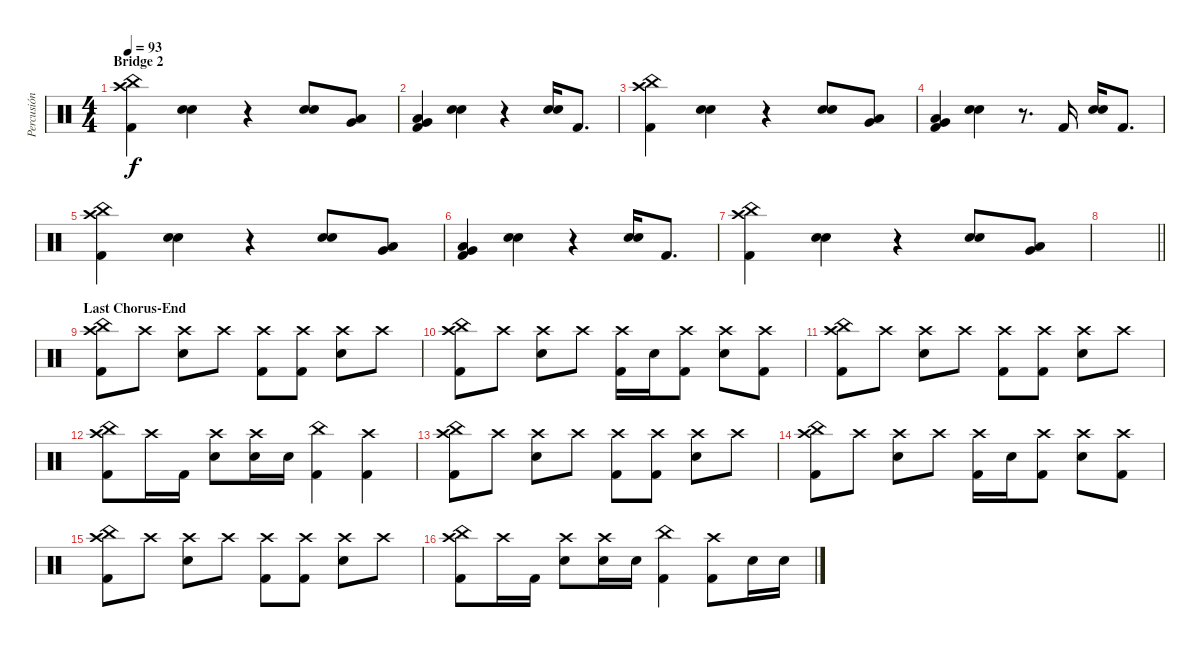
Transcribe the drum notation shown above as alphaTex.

\track ("Percusión" "Percusión") {instrument percussion}
\staff {score}
\articulation defaults
\ts (4 4)
\section ("" "Bridge 2")
\tempo 93
\clef neutral
\ks c
("China (hit)" "Kick (hit) 2" "Crash high (hit)").4{dy f} ("Electric Snare (hit)" "Snare (hit) 2").4 r.4 ("Electric Snare (hit)" "Snare (hit) 2").8 ("Low Tom (hit)" "Very Low Tom (hit)").8 |
("Low Tom (hit)" "Very Low Tom (hit)" "Kick (hit) 2").4 ("Electric Snare (hit)" "Snare (hit) 2").4 r.4 ("Electric Snare (hit)" "Snare (hit) 2").16 "Kick (hit) 2".8{d} |
("China (hit)" "Kick (hit) 2" "Crash high (hit)").4 ("Electric Snare (hit)" "Snare (hit) 2").4 r.4 ("Electric Snare (hit)" "Snare (hit) 2").8 ("Low Tom (hit)" "Very Low Tom (hit)").8 |
("Low Tom (hit)" "Very Low Tom (hit)" "Kick (hit) 2").4 ("Electric Snare (hit)" "Snare (hit) 2").4 r.8{d} "Kick (hit) 2".16 ("Electric Snare (hit)" "Snare (hit) 2").16 "Kick (hit) 2".8{d} |
("China (hit)" "Kick (hit) 2" "Crash high (hit)").4 ("Electric Snare (hit)" "Snare (hit) 2").4 r.4 ("Electric Snare (hit)" "Snare (hit) 2").8 ("Low Tom (hit)" "Very Low Tom (hit)").8 |
("Low Tom (hit)" "Very Low Tom (hit)" "Kick (hit) 2").4 ("Electric Snare (hit)" "Snare (hit) 2").4 r.4 ("Electric Snare (hit)" "Snare (hit) 2").16 "Kick (hit) 2".8{d} |
("China (hit)" "Kick (hit) 2" "Crash high (hit)").4 ("Electric Snare (hit)" "Snare (hit) 2").4 r.4 ("Electric Snare (hit)" "Snare (hit) 2").8 ("Low Tom (hit)" "Very Low Tom (hit)").8 |
\barLineRight lightlight
|
\section ("" "Last Chorus-End")
("China (hit)" "Kick (hit) 2" "Crash high (hit)").8 "Crash high (hit)".8 ("Snare (hit) 2" "Crash high (hit)").8 "Crash high (hit)".8 ("Kick (hit) 2" "Crash high (hit)").8 ("Kick (hit) 2" "Crash high (hit)").8 ("Snare (hit) 2" "Crash high (hit)").8 "Crash high (hit)".8 |
("China (hit)" "Kick (hit) 2" "Crash high (hit)").8 "Crash high (hit)".8 ("Snare (hit) 2" "Crash high (hit)").8 "Crash high (hit)".8 ("Kick (hit) 2" "Crash high (hit)").16 "Snare (hit) 2".16 ("Kick (hit) 2" "Crash high (hit)").8 ("Snare (hit) 2" "Crash high (hit)").8 ("Kick (hit) 2" "Crash high (hit)").8 |
("China (hit)" "Kick (hit) 2" "Crash high (hit)").8 "Crash high (hit)".8 ("Snare (hit) 2" "Crash high (hit)").8 "Crash high (hit)".8 ("Kick (hit) 2" "Crash high (hit)").8 ("Kick (hit) 2" "Crash high (hit)").8 ("Snare (hit) 2" "Crash high (hit)").8 "Crash high (hit)".8 |
("China (hit)" "Kick (hit) 2" "Crash high (hit)").8 "Crash high (hit)".16 "Kick (hit) 2".16 ("Snare (hit) 2" "Crash high (hit)").8 ("Snare (hit) 2" "Crash high (hit)").16 "Snare (hit) 2".16 ("China (hit)" "Kick (hit) 2").4 ("Kick (hit) 2" "Crash high (hit)").4 |
("China (hit)" "Kick (hit) 2" "Crash high (hit)").8 "Crash high (hit)".8 ("Snare (hit) 2" "Crash high (hit)").8 "Crash high (hit)".8 ("Kick (hit) 2" "Crash high (hit)").8 ("Kick (hit) 2" "Crash high (hit)").8 ("Snare (hit) 2" "Crash high (hit)").8 "Crash high (hit)".8 |
("China (hit)" "Kick (hit) 2" "Crash high (hit)").8 "Crash high (hit)".8 ("Snare (hit) 2" "Crash high (hit)").8 "Crash high (hit)".8 ("Kick (hit) 2" "Crash high (hit)").16 "Snare (hit) 2".16 ("Kick (hit) 2" "Crash high (hit)").8 ("Snare (hit) 2" "Crash high (hit)").8 ("Kick (hit) 2" "Crash high (hit)").8 |
("China (hit)" "Kick (hit) 2" "Crash high (hit)").8 "Crash high (hit)".8 ("Snare (hit) 2" "Crash high (hit)").8 "Crash high (hit)".8 ("Kick (hit) 2" "Crash high (hit)").8 ("Kick (hit) 2" "Crash high (hit)").8 ("Snare (hit) 2" "Crash high (hit)").8 "Crash high (hit)".8 |
("China (hit)" "Kick (hit) 2" "Crash high (hit)").8 "Crash high (hit)".16 "Kick (hit) 2".16 ("Snare (hit) 2" "Crash high (hit)").8 ("Snare (hit) 2" "Crash high (hit)").16 "Snare (hit) 2".16 ("China (hit)" "Kick (hit) 2").4 ("Kick (hit) 2" "Crash high (hit)").8 "Snare (hit) 2".16 "Snare (hit) 2".16
